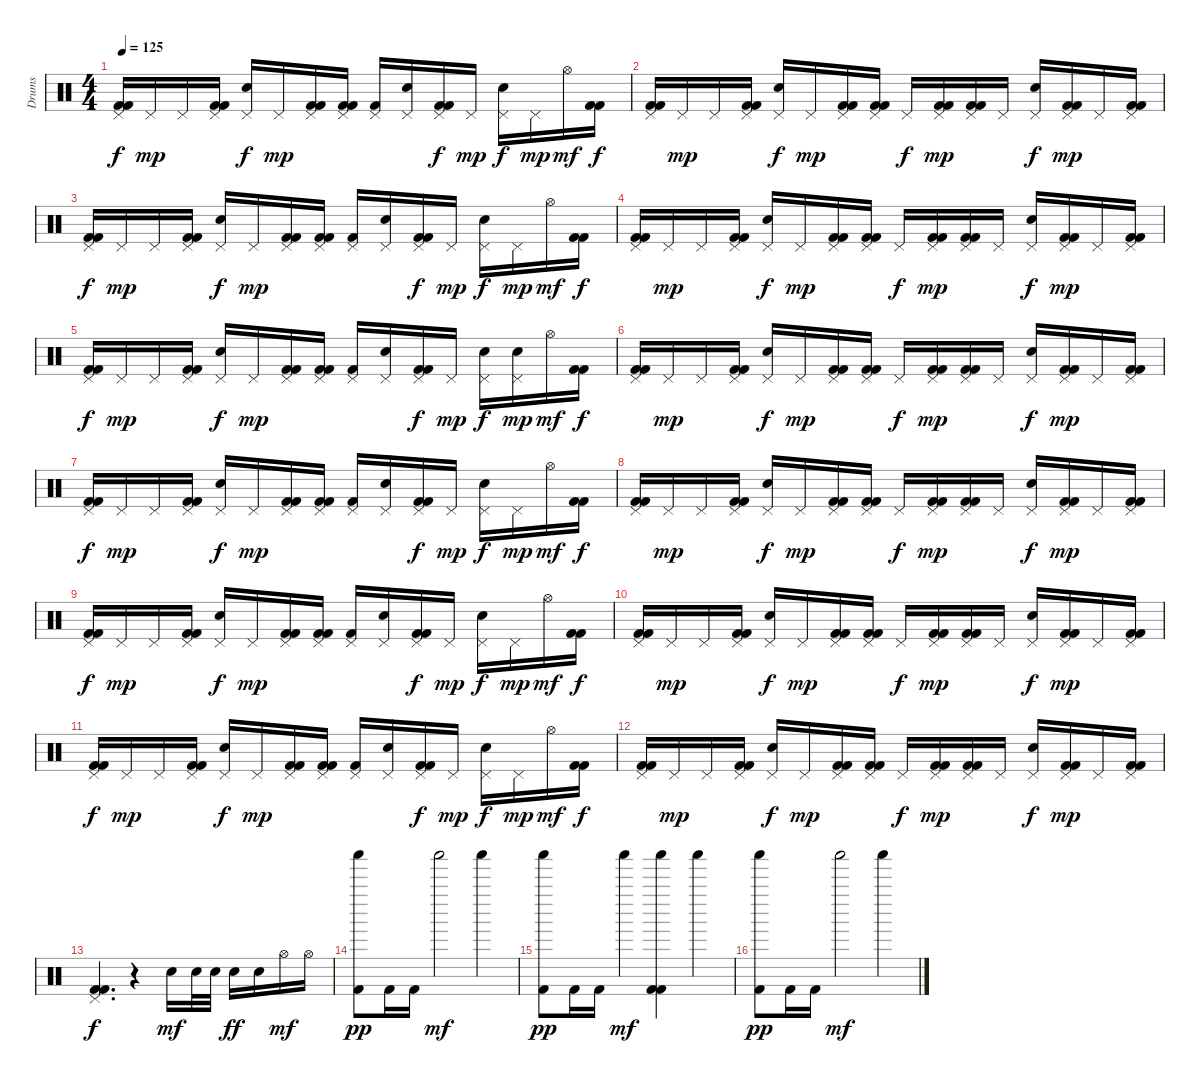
\track ("Drums" "Drums") {instrument percussion}
\staff {score}
\articulation defaults
\ts (4 4)
\tempo 125
\clef neutral
\ks c
("Pedal Hi-Hat (hit)" "Kick (hit) 2" "Kick (hit) 2").16{dy f} "Pedal Hi-Hat (hit)".16{dy mp} "Pedal Hi-Hat (hit)".16 ("Pedal Hi-Hat (hit)" "Kick (hit) 2" "Kick (hit) 2").16 ("Pedal Hi-Hat (hit)" "Electric Snare (hit)").16{dy f} "Pedal Hi-Hat (hit)".16{dy mp} ("Pedal Hi-Hat (hit)" "Kick (hit) 2" "Kick (hit) 2").16 ("Pedal Hi-Hat (hit)" "Kick (hit) 2" "Kick (hit) 2").16 ("Pedal Hi-Hat (hit)" "Kick (hit) 2").16 ("Pedal Hi-Hat (hit)" "Electric Snare (hit)").16 ("Pedal Hi-Hat (hit)" "Kick (hit) 2" "Kick (hit) 2").16{dy f} "Pedal Hi-Hat (hit)".16{dy mp} ("Pedal Hi-Hat (hit)" "Electric Snare (hit)").16{dy f} "Pedal Hi-Hat (hit)".16{dy mp} "Hi-Hat (open)".16{dy mf} ("Kick (hit) 2" "Kick (hit) 2").16{dy f} |
("Pedal Hi-Hat (hit)" "Kick (hit) 2" "Kick (hit) 2").16 "Pedal Hi-Hat (hit)".16{dy mp} "Pedal Hi-Hat (hit)".16 ("Pedal Hi-Hat (hit)" "Kick (hit) 2" "Kick (hit) 2").16 ("Pedal Hi-Hat (hit)" "Electric Snare (hit)").16{dy f} "Pedal Hi-Hat (hit)".16{dy mp} ("Pedal Hi-Hat (hit)" "Kick (hit) 2" "Kick (hit) 2").16 ("Pedal Hi-Hat (hit)" "Kick (hit) 2" "Kick (hit) 2").16 "Pedal Hi-Hat (hit)".16{dy f} ("Pedal Hi-Hat (hit)" "Kick (hit) 2" "Kick (hit) 2").16{dy mp} ("Pedal Hi-Hat (hit)" "Kick (hit) 2" "Kick (hit) 2").16 "Pedal Hi-Hat (hit)".16 ("Pedal Hi-Hat (hit)" "Electric Snare (hit)").16{dy f} ("Pedal Hi-Hat (hit)" "Kick (hit) 2" "Kick (hit) 2").16{dy mp} "Pedal Hi-Hat (hit)".16 ("Pedal Hi-Hat (hit)" "Kick (hit) 2" "Kick (hit) 2").16 |
("Pedal Hi-Hat (hit)" "Kick (hit) 2" "Kick (hit) 2").16{dy f} "Pedal Hi-Hat (hit)".16{dy mp} "Pedal Hi-Hat (hit)".16 ("Pedal Hi-Hat (hit)" "Kick (hit) 2" "Kick (hit) 2").16 ("Pedal Hi-Hat (hit)" "Electric Snare (hit)").16{dy f} "Pedal Hi-Hat (hit)".16{dy mp} ("Pedal Hi-Hat (hit)" "Kick (hit) 2" "Kick (hit) 2").16 ("Pedal Hi-Hat (hit)" "Kick (hit) 2" "Kick (hit) 2").16 ("Pedal Hi-Hat (hit)" "Kick (hit) 2").16 ("Pedal Hi-Hat (hit)" "Electric Snare (hit)").16 ("Pedal Hi-Hat (hit)" "Kick (hit) 2" "Kick (hit) 2").16{dy f} "Pedal Hi-Hat (hit)".16{dy mp} ("Pedal Hi-Hat (hit)" "Electric Snare (hit)").16{dy f} "Pedal Hi-Hat (hit)".16{dy mp} "Hi-Hat (open)".16{dy mf} ("Kick (hit) 2" "Kick (hit) 2").16{dy f} |
("Pedal Hi-Hat (hit)" "Kick (hit) 2" "Kick (hit) 2").16 "Pedal Hi-Hat (hit)".16{dy mp} "Pedal Hi-Hat (hit)".16 ("Pedal Hi-Hat (hit)" "Kick (hit) 2" "Kick (hit) 2").16 ("Pedal Hi-Hat (hit)" "Electric Snare (hit)").16{dy f} "Pedal Hi-Hat (hit)".16{dy mp} ("Pedal Hi-Hat (hit)" "Kick (hit) 2" "Kick (hit) 2").16 ("Pedal Hi-Hat (hit)" "Kick (hit) 2" "Kick (hit) 2").16 "Pedal Hi-Hat (hit)".16{dy f} ("Pedal Hi-Hat (hit)" "Kick (hit) 2" "Kick (hit) 2").16{dy mp} ("Pedal Hi-Hat (hit)" "Kick (hit) 2" "Kick (hit) 2").16 "Pedal Hi-Hat (hit)".16 ("Pedal Hi-Hat (hit)" "Electric Snare (hit)").16{dy f} ("Pedal Hi-Hat (hit)" "Kick (hit) 2" "Kick (hit) 2").16{dy mp} "Pedal Hi-Hat (hit)".16 ("Pedal Hi-Hat (hit)" "Kick (hit) 2" "Kick (hit) 2").16 |
("Pedal Hi-Hat (hit)" "Kick (hit) 2" "Kick (hit) 2").16{dy f} "Pedal Hi-Hat (hit)".16{dy mp} "Pedal Hi-Hat (hit)".16 ("Pedal Hi-Hat (hit)" "Kick (hit) 2" "Kick (hit) 2").16 ("Pedal Hi-Hat (hit)" "Electric Snare (hit)").16{dy f} "Pedal Hi-Hat (hit)".16{dy mp} ("Pedal Hi-Hat (hit)" "Kick (hit) 2" "Kick (hit) 2").16 ("Pedal Hi-Hat (hit)" "Kick (hit) 2" "Kick (hit) 2").16 ("Pedal Hi-Hat (hit)" "Kick (hit) 2").16 ("Pedal Hi-Hat (hit)" "Electric Snare (hit)").16 ("Pedal Hi-Hat (hit)" "Kick (hit) 2" "Kick (hit) 2").16{dy f} "Pedal Hi-Hat (hit)".16{dy mp} ("Pedal Hi-Hat (hit)" "Electric Snare (hit)").16{dy f} ("Pedal Hi-Hat (hit)" "Electric Snare (hit)").16{dy mp} "Hi-Hat (open)".16{dy mf} ("Kick (hit) 2" "Kick (hit) 2").16{dy f} |
("Pedal Hi-Hat (hit)" "Kick (hit) 2" "Kick (hit) 2").16 "Pedal Hi-Hat (hit)".16{dy mp} "Pedal Hi-Hat (hit)".16 ("Pedal Hi-Hat (hit)" "Kick (hit) 2" "Kick (hit) 2").16 ("Pedal Hi-Hat (hit)" "Electric Snare (hit)").16{dy f} "Pedal Hi-Hat (hit)".16{dy mp} ("Pedal Hi-Hat (hit)" "Kick (hit) 2" "Kick (hit) 2").16 ("Pedal Hi-Hat (hit)" "Kick (hit) 2" "Kick (hit) 2").16 "Pedal Hi-Hat (hit)".16{dy f} ("Pedal Hi-Hat (hit)" "Kick (hit) 2" "Kick (hit) 2").16{dy mp} ("Pedal Hi-Hat (hit)" "Kick (hit) 2" "Kick (hit) 2").16 "Pedal Hi-Hat (hit)".16 ("Pedal Hi-Hat (hit)" "Electric Snare (hit)").16{dy f} ("Pedal Hi-Hat (hit)" "Kick (hit) 2" "Kick (hit) 2").16{dy mp} "Pedal Hi-Hat (hit)".16 ("Pedal Hi-Hat (hit)" "Kick (hit) 2" "Kick (hit) 2").16 |
("Pedal Hi-Hat (hit)" "Kick (hit) 2" "Kick (hit) 2").16{dy f} "Pedal Hi-Hat (hit)".16{dy mp} "Pedal Hi-Hat (hit)".16 ("Pedal Hi-Hat (hit)" "Kick (hit) 2" "Kick (hit) 2").16 ("Pedal Hi-Hat (hit)" "Electric Snare (hit)").16{dy f} "Pedal Hi-Hat (hit)".16{dy mp} ("Pedal Hi-Hat (hit)" "Kick (hit) 2" "Kick (hit) 2").16 ("Pedal Hi-Hat (hit)" "Kick (hit) 2" "Kick (hit) 2").16 ("Pedal Hi-Hat (hit)" "Kick (hit) 2").16 ("Pedal Hi-Hat (hit)" "Electric Snare (hit)").16 ("Pedal Hi-Hat (hit)" "Kick (hit) 2" "Kick (hit) 2").16{dy f} "Pedal Hi-Hat (hit)".16{dy mp} ("Pedal Hi-Hat (hit)" "Electric Snare (hit)").16{dy f} "Pedal Hi-Hat (hit)".16{dy mp} "Hi-Hat (open)".16{dy mf} ("Kick (hit) 2" "Kick (hit) 2").16{dy f} |
("Pedal Hi-Hat (hit)" "Kick (hit) 2" "Kick (hit) 2").16 "Pedal Hi-Hat (hit)".16{dy mp} "Pedal Hi-Hat (hit)".16 ("Pedal Hi-Hat (hit)" "Kick (hit) 2" "Kick (hit) 2").16 ("Pedal Hi-Hat (hit)" "Electric Snare (hit)").16{dy f} "Pedal Hi-Hat (hit)".16{dy mp} ("Pedal Hi-Hat (hit)" "Kick (hit) 2" "Kick (hit) 2").16 ("Pedal Hi-Hat (hit)" "Kick (hit) 2" "Kick (hit) 2").16 "Pedal Hi-Hat (hit)".16{dy f} ("Pedal Hi-Hat (hit)" "Kick (hit) 2" "Kick (hit) 2").16{dy mp} ("Pedal Hi-Hat (hit)" "Kick (hit) 2" "Kick (hit) 2").16 "Pedal Hi-Hat (hit)".16 ("Pedal Hi-Hat (hit)" "Electric Snare (hit)").16{dy f} ("Pedal Hi-Hat (hit)" "Kick (hit) 2" "Kick (hit) 2").16{dy mp} "Pedal Hi-Hat (hit)".16 ("Pedal Hi-Hat (hit)" "Kick (hit) 2" "Kick (hit) 2").16 |
("Pedal Hi-Hat (hit)" "Kick (hit) 2" "Kick (hit) 2").16{dy f} "Pedal Hi-Hat (hit)".16{dy mp} "Pedal Hi-Hat (hit)".16 ("Pedal Hi-Hat (hit)" "Kick (hit) 2" "Kick (hit) 2").16 ("Pedal Hi-Hat (hit)" "Electric Snare (hit)").16{dy f} "Pedal Hi-Hat (hit)".16{dy mp} ("Pedal Hi-Hat (hit)" "Kick (hit) 2" "Kick (hit) 2").16 ("Pedal Hi-Hat (hit)" "Kick (hit) 2" "Kick (hit) 2").16 ("Pedal Hi-Hat (hit)" "Kick (hit) 2").16 ("Pedal Hi-Hat (hit)" "Electric Snare (hit)").16 ("Pedal Hi-Hat (hit)" "Kick (hit) 2" "Kick (hit) 2").16{dy f} "Pedal Hi-Hat (hit)".16{dy mp} ("Pedal Hi-Hat (hit)" "Electric Snare (hit)").16{dy f} "Pedal Hi-Hat (hit)".16{dy mp} "Hi-Hat (open)".16{dy mf} ("Kick (hit) 2" "Kick (hit) 2").16{dy f} |
("Pedal Hi-Hat (hit)" "Kick (hit) 2" "Kick (hit) 2").16 "Pedal Hi-Hat (hit)".16{dy mp} "Pedal Hi-Hat (hit)".16 ("Pedal Hi-Hat (hit)" "Kick (hit) 2" "Kick (hit) 2").16 ("Pedal Hi-Hat (hit)" "Electric Snare (hit)").16{dy f} "Pedal Hi-Hat (hit)".16{dy mp} ("Pedal Hi-Hat (hit)" "Kick (hit) 2" "Kick (hit) 2").16 ("Pedal Hi-Hat (hit)" "Kick (hit) 2" "Kick (hit) 2").16 "Pedal Hi-Hat (hit)".16{dy f} ("Pedal Hi-Hat (hit)" "Kick (hit) 2" "Kick (hit) 2").16{dy mp} ("Pedal Hi-Hat (hit)" "Kick (hit) 2" "Kick (hit) 2").16 "Pedal Hi-Hat (hit)".16 ("Pedal Hi-Hat (hit)" "Electric Snare (hit)").16{dy f} ("Pedal Hi-Hat (hit)" "Kick (hit) 2" "Kick (hit) 2").16{dy mp} "Pedal Hi-Hat (hit)".16 ("Pedal Hi-Hat (hit)" "Kick (hit) 2" "Kick (hit) 2").16 |
("Pedal Hi-Hat (hit)" "Kick (hit) 2" "Kick (hit) 2").16{dy f} "Pedal Hi-Hat (hit)".16{dy mp} "Pedal Hi-Hat (hit)".16 ("Pedal Hi-Hat (hit)" "Kick (hit) 2" "Kick (hit) 2").16 ("Pedal Hi-Hat (hit)" "Electric Snare (hit)").16{dy f} "Pedal Hi-Hat (hit)".16{dy mp} ("Pedal Hi-Hat (hit)" "Kick (hit) 2" "Kick (hit) 2").16 ("Pedal Hi-Hat (hit)" "Kick (hit) 2" "Kick (hit) 2").16 ("Pedal Hi-Hat (hit)" "Kick (hit) 2").16 ("Pedal Hi-Hat (hit)" "Electric Snare (hit)").16 ("Pedal Hi-Hat (hit)" "Kick (hit) 2" "Kick (hit) 2").16{dy f} "Pedal Hi-Hat (hit)".16{dy mp} ("Pedal Hi-Hat (hit)" "Electric Snare (hit)").16{dy f} "Pedal Hi-Hat (hit)".16{dy mp} "Hi-Hat (open)".16{dy mf} ("Kick (hit) 2" "Kick (hit) 2").16{dy f} |
("Pedal Hi-Hat (hit)" "Kick (hit) 2" "Kick (hit) 2").16 "Pedal Hi-Hat (hit)".16{dy mp} "Pedal Hi-Hat (hit)".16 ("Pedal Hi-Hat (hit)" "Kick (hit) 2" "Kick (hit) 2").16 ("Pedal Hi-Hat (hit)" "Electric Snare (hit)").16{dy f} "Pedal Hi-Hat (hit)".16{dy mp} ("Pedal Hi-Hat (hit)" "Kick (hit) 2" "Kick (hit) 2").16 ("Pedal Hi-Hat (hit)" "Kick (hit) 2" "Kick (hit) 2").16 "Pedal Hi-Hat (hit)".16{dy f} ("Pedal Hi-Hat (hit)" "Kick (hit) 2" "Kick (hit) 2").16{dy mp} ("Pedal Hi-Hat (hit)" "Kick (hit) 2" "Kick (hit) 2").16 "Pedal Hi-Hat (hit)".16 ("Pedal Hi-Hat (hit)" "Electric Snare (hit)").16{dy f} ("Pedal Hi-Hat (hit)" "Kick (hit) 2" "Kick (hit) 2").16{dy mp} "Pedal Hi-Hat (hit)".16 ("Pedal Hi-Hat (hit)" "Kick (hit) 2" "Kick (hit) 2").16 |
("Pedal Hi-Hat (hit)" "Kick (hit) 2" "Kick (hit) 2").4{d dy f} r.4 "Electric Snare (hit)".16{dy mf} "Electric Snare (hit)".32 "Electric Snare (hit)".32 "Electric Snare (hit)".16{dy ff} "Electric Snare (hit)".16 "Hi-Hat (open)".16{dy mf} "Hi-Hat (open)".16 |
("Shaker (hit)" "Kick (hit) 2").8{dy pp} "Kick (hit) 2".16 "Kick (hit) 2".16 "Shaker (hit)".2{dy mf} "Shaker (hit)".4 |
("Shaker (hit)" "Kick (hit) 2").8{dy pp} "Kick (hit) 2".16 "Kick (hit) 2".16 "Shaker (hit)".4{dy mf} ("Shaker (hit)" "Kick (hit) 2" "Kick (hit) 2").4 "Shaker (hit)".4 |
("Shaker (hit)" "Kick (hit) 2").8{dy pp} "Kick (hit) 2".16 "Kick (hit) 2".16 "Shaker (hit)".2{dy mf} "Shaker (hit)".4
